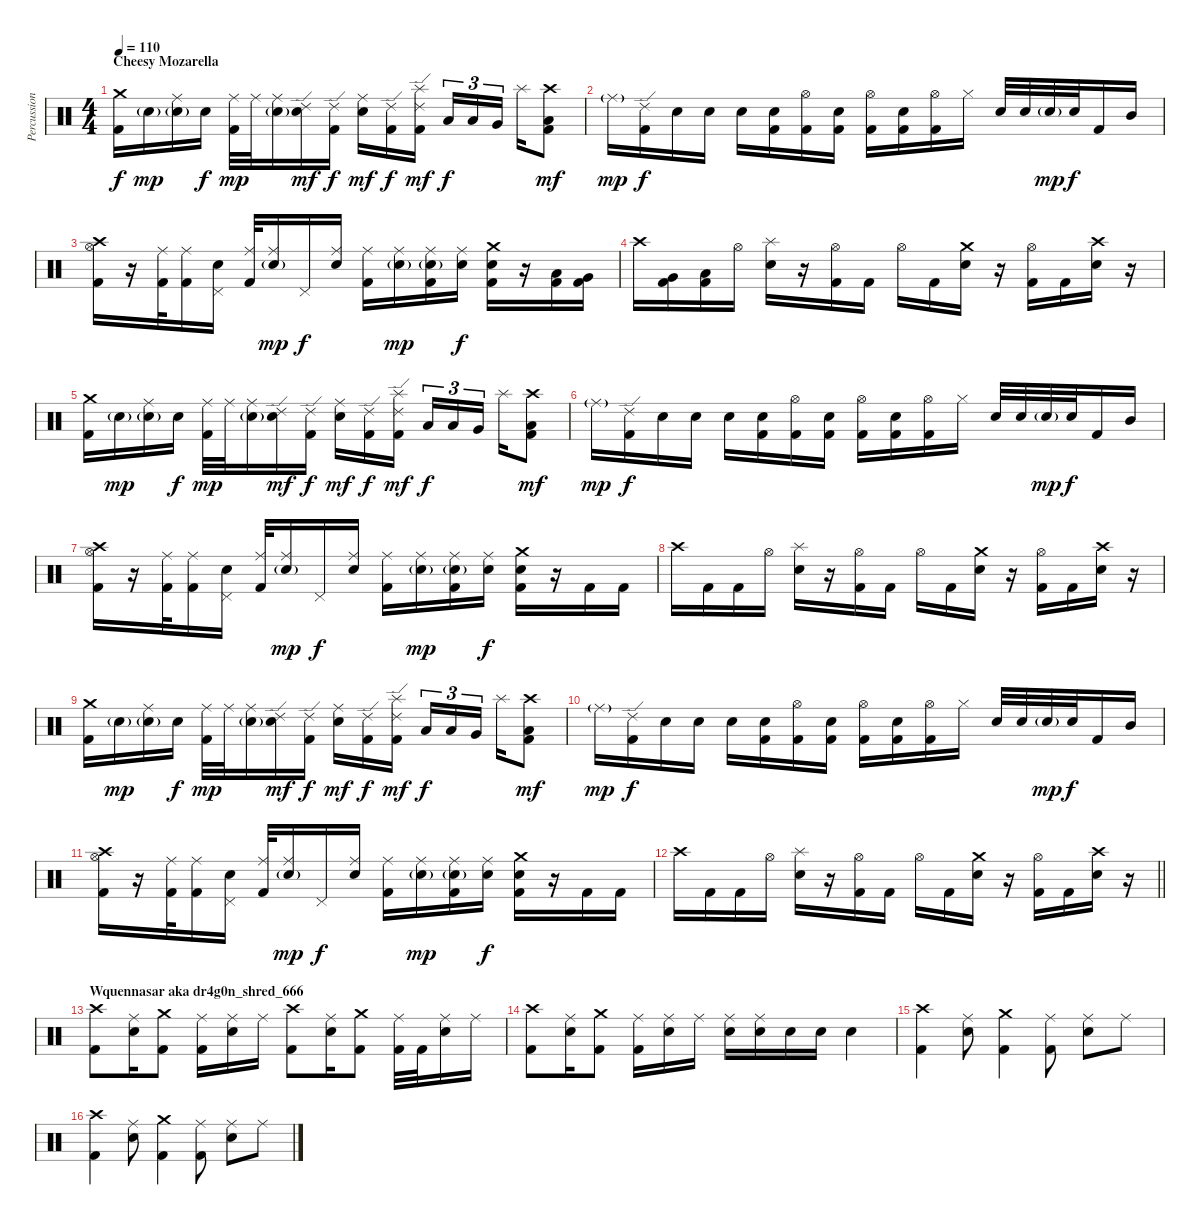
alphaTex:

\track ("Percussion" "Percussion") {instrument percussion}
\staff {score}
\articulation defaults
\ts (4 4)
\section ("" "Cheesy Mozarella")
\tempo 110
\clef neutral
\ks c
("Crash medium (hit)" "Kick (hit) 2").16{dy f} "Electric Snare (hit)"{g}.16{dy mp} ("Ride (middle)" "Electric Snare (hit)"{g}).16 "Electric Snare (hit)".16{dy f} ("Ride (middle)" "Kick (hit) 2").32{dy mp} "Ride (middle)".32 ("Ride (middle)" "Electric Snare (hit)"{g}).16 ("Ride (edge) 2" "Electric Snare (hit)").16{dy mf} ("Ride (edge) 2" "Kick (hit) 2").16{dy f} ("Ride (middle)" "Electric Snare (hit)").16{dy mf} ("Ride (edge) 2" "Kick (hit) 2").16{dy f} ("Ride (edge) 2" "Splash (hit)" "Kick (hit) 2").16{dy mf beam splitsecondary} "Low Tom (hit)".16{tu (3 2) dy f} "Low Tom (hit)".16{tu (3 2)} "Very Low Tom (hit)".16{tu (3 2) beam splitsecondary} "Splash (hit)".16 ("Crash high (hit)" "Low Floor Tom (hit)" "Kick (hit) 2").8{dy mf} |
"Ride (middle)"{g}.16{dy mp} ("Ride (edge) 2" "Kick (hit) 2").16{dy f} "Electric Snare (hit)".16 "Electric Snare (hit)".16 "Electric Snare (hit)".16 ("Electric Snare (hit)" "Kick (hit) 2").16 ("Hi-Hat (open)" "Kick (hit) 2").16 ("Electric Snare (hit)" "Kick (hit) 2").16 ("Hi-Hat (open)" "Kick (hit) 2").16 ("Electric Snare (hit)" "Kick (hit) 2").16 ("Hi-Hat (open)" "Kick (hit) 2").16 "Hi-Hat (closed)".16 "Electric Snare (hit)".32 "Electric Snare (hit)".32 "Electric Snare (hit)"{g}.32{dy mp} "Electric Snare (hit)".32{dy f} "Kick (hit) 2".16 "Mid Tom (hit)".16 |
("Hi-Hat (open)" "Crash high (hit)" "Kick (hit) 2").16 r.16 ("Ride (middle)" "Kick (hit) 2").32 ("Ride (middle)" "Kick (hit) 2").16 ("Pedal Hi-Hat (hit)" "Electric Snare (hit)").16 ("Ride (middle)" "Kick (hit) 2").32 ("Ride (middle)" "Electric Snare (hit)"{g}).16{dy mp} "Pedal Hi-Hat (hit)".16{dy f} ("Ride (middle)" "Electric Snare (hit)").16 ("Ride (middle)" "Kick (hit) 2").16 ("Ride (middle)" "Electric Snare (hit)"{g}).16{dy mp} ("Ride (middle)" "Electric Snare (hit)"{g} "Kick (hit) 2").16 ("Ride (middle)" "Electric Snare (hit)").16{dy f} ("Crash medium (hit)" "Electric Snare (hit)" "Kick (hit) 2").16 r.16 ("Low Floor Tom (hit)" "Kick (hit) 2").16 ("Very Low Tom (hit)" "Kick (hit) 2").16 |
"Crash high (hit)".16 ("Very Low Tom (hit)" "Kick (hit) 2").16 ("Low Tom (hit)" "Kick (hit) 2").16 "Hi-Hat (open)".16 ("Splash (hit)" "Electric Snare (hit)").16 r.16 ("Hi-Hat (open)" "Kick (hit) 2").16 "Kick (hit) 2".16 "Hi-Hat (open)".16 "Kick (hit) 2".16 ("Crash medium (hit)" "Electric Snare (hit)").16 r.16 ("Hi-Hat (open)" "Kick (hit) 2").16 "Kick (hit) 2".16 ("Crash high (hit)" "Electric Snare (hit)").16 r.16 |
("Crash medium (hit)" "Kick (hit) 2").16 "Electric Snare (hit)"{g}.16{dy mp} ("Ride (middle)" "Electric Snare (hit)"{g}).16 "Electric Snare (hit)".16{dy f} ("Ride (middle)" "Kick (hit) 2").32{dy mp} "Ride (middle)".32 ("Ride (middle)" "Electric Snare (hit)"{g}).16 ("Ride (edge) 2" "Electric Snare (hit)").16{dy mf} ("Ride (edge) 2" "Kick (hit) 2").16{dy f} ("Ride (middle)" "Electric Snare (hit)").16{dy mf} ("Ride (edge) 2" "Kick (hit) 2").16{dy f} ("Ride (edge) 2" "Splash (hit)" "Kick (hit) 2").16{dy mf beam splitsecondary} "Low Tom (hit)".16{tu (3 2) dy f} "Low Tom (hit)".16{tu (3 2)} "Very Low Tom (hit)".16{tu (3 2) beam splitsecondary} "Splash (hit)".16 ("Crash high (hit)" "Low Floor Tom (hit)" "Kick (hit) 2").8{dy mf} |
"Ride (middle)"{g}.16{dy mp} ("Ride (edge) 2" "Kick (hit) 2").16{dy f} "Electric Snare (hit)".16 "Electric Snare (hit)".16 "Electric Snare (hit)".16 ("Electric Snare (hit)" "Kick (hit) 2").16 ("Hi-Hat (open)" "Kick (hit) 2").16 ("Electric Snare (hit)" "Kick (hit) 2").16 ("Hi-Hat (open)" "Kick (hit) 2").16 ("Electric Snare (hit)" "Kick (hit) 2").16 ("Hi-Hat (open)" "Kick (hit) 2").16 "Hi-Hat (closed)".16 "Electric Snare (hit)".32 "Electric Snare (hit)".32 "Electric Snare (hit)"{g}.32{dy mp} "Electric Snare (hit)".32{dy f} "Kick (hit) 2".16 "Mid Tom (hit)".16 |
("Hi-Hat (open)" "Crash high (hit)" "Kick (hit) 2").16 r.16 ("Ride (middle)" "Kick (hit) 2").32 ("Ride (middle)" "Kick (hit) 2").16 ("Pedal Hi-Hat (hit)" "Electric Snare (hit)").16 ("Ride (middle)" "Kick (hit) 2").32 ("Ride (middle)" "Electric Snare (hit)"{g}).16{dy mp} "Pedal Hi-Hat (hit)".16{dy f} ("Ride (middle)" "Electric Snare (hit)").16 ("Ride (middle)" "Kick (hit) 2").16 ("Ride (middle)" "Electric Snare (hit)"{g}).16{dy mp} ("Ride (middle)" "Electric Snare (hit)"{g} "Kick (hit) 2").16 ("Ride (middle)" "Electric Snare (hit)").16{dy f} ("Crash medium (hit)" "Electric Snare (hit)" "Kick (hit) 2").16 r.16 "Kick (hit) 2".16 "Kick (hit) 2".16 |
"Crash high (hit)".16 "Kick (hit) 2".16 "Kick (hit) 2".16 "Hi-Hat (open)".16 ("Splash (hit)" "Electric Snare (hit)").16 r.16 ("Hi-Hat (open)" "Kick (hit) 2").16 "Kick (hit) 2".16 "Hi-Hat (open)".16 "Kick (hit) 2".16 ("Crash medium (hit)" "Electric Snare (hit)").16 r.16 ("Hi-Hat (open)" "Kick (hit) 2").16 "Kick (hit) 2".16 ("Crash high (hit)" "Electric Snare (hit)").16 r.16 |
("Crash medium (hit)" "Kick (hit) 2").16 "Electric Snare (hit)"{g}.16{dy mp} ("Ride (middle)" "Electric Snare (hit)"{g}).16 "Electric Snare (hit)".16{dy f} ("Ride (middle)" "Kick (hit) 2").32{dy mp} "Ride (middle)".32 ("Ride (middle)" "Electric Snare (hit)"{g}).16 ("Ride (edge) 2" "Electric Snare (hit)").16{dy mf} ("Ride (edge) 2" "Kick (hit) 2").16{dy f} ("Ride (middle)" "Electric Snare (hit)").16{dy mf} ("Ride (edge) 2" "Kick (hit) 2").16{dy f} ("Ride (edge) 2" "Splash (hit)" "Kick (hit) 2").16{dy mf beam splitsecondary} "Low Tom (hit)".16{tu (3 2) dy f} "Low Tom (hit)".16{tu (3 2)} "Very Low Tom (hit)".16{tu (3 2) beam splitsecondary} "Splash (hit)".16 ("Crash high (hit)" "Low Floor Tom (hit)" "Kick (hit) 2").8{dy mf} |
"Ride (middle)"{g}.16{dy mp} ("Ride (edge) 2" "Kick (hit) 2").16{dy f} "Electric Snare (hit)".16 "Electric Snare (hit)".16 "Electric Snare (hit)".16 ("Electric Snare (hit)" "Kick (hit) 2").16 ("Hi-Hat (open)" "Kick (hit) 2").16 ("Electric Snare (hit)" "Kick (hit) 2").16 ("Hi-Hat (open)" "Kick (hit) 2").16 ("Electric Snare (hit)" "Kick (hit) 2").16 ("Hi-Hat (open)" "Kick (hit) 2").16 "Hi-Hat (closed)".16 "Electric Snare (hit)".32 "Electric Snare (hit)".32 "Electric Snare (hit)"{g}.32{dy mp} "Electric Snare (hit)".32{dy f} "Kick (hit) 2".16 "Mid Tom (hit)".16 |
("Hi-Hat (open)" "Crash high (hit)" "Kick (hit) 2").16 r.16 ("Ride (middle)" "Kick (hit) 2").32 ("Ride (middle)" "Kick (hit) 2").16 ("Pedal Hi-Hat (hit)" "Electric Snare (hit)").16 ("Ride (middle)" "Kick (hit) 2").32 ("Ride (middle)" "Electric Snare (hit)"{g}).16{dy mp} "Pedal Hi-Hat (hit)".16{dy f} ("Ride (middle)" "Electric Snare (hit)").16 ("Ride (middle)" "Kick (hit) 2").16 ("Ride (middle)" "Electric Snare (hit)"{g}).16{dy mp} ("Ride (middle)" "Electric Snare (hit)"{g} "Kick (hit) 2").16 ("Ride (middle)" "Electric Snare (hit)").16{dy f} ("Crash medium (hit)" "Electric Snare (hit)" "Kick (hit) 2").16 r.16 "Kick (hit) 2".16 "Kick (hit) 2".16 |
\barLineRight lightlight "Crash high (hit)".16 "Kick (hit) 2".16 "Kick (hit) 2".16 "Hi-Hat (open)".16
("Splash (hit)" "Electric Snare (hit)").16 r.16 ("Hi-Hat (open)" "Kick (hit) 2").16 "Kick (hit) 2".16 "Hi-Hat (open)".16 "Kick (hit) 2".16 ("Crash medium (hit)" "Electric Snare (hit)").16 r.16 ("Hi-Hat (open)" "Kick (hit) 2").16 "Kick (hit) 2".16 ("Crash high (hit)" "Electric Snare (hit)").16 r.16 |
\section ("" "Wquennasar aka dr4g0n_shred_666")
("Crash high (hit)" "Kick (hit) 2").8 ("Ride (middle)" "Electric Snare (hit)").16 ("Crash medium (hit)" "Kick (hit) 2").8 ("Ride (middle)" "Kick (hit) 2").16 ("Ride (middle)" "Electric Snare (hit)").16 "Ride (middle)".16 ("Crash high (hit)" "Kick (hit) 2").8 ("Ride (middle)" "Electric Snare (hit)").16 ("Crash medium (hit)" "Kick (hit) 2").8 ("Ride (middle)" "Kick (hit) 2").32 "Kick (hit) 2".32 ("Ride (middle)" "Electric Snare (hit)").16 "Ride (middle)".16 |
("Crash high (hit)" "Kick (hit) 2").8 ("Ride (middle)" "Electric Snare (hit)").16 ("Crash medium (hit)" "Kick (hit) 2").8 ("Ride (middle)" "Kick (hit) 2").16 ("Ride (middle)" "Electric Snare (hit)").16 "Ride (middle)".16 ("Ride (middle)" "Electric Snare (hit)").16 ("Ride (middle)" "Electric Snare (hit)").16 "Electric Snare (hit)".16 "Electric Snare (hit)".16 "Electric Snare (hit)".4 |
("Crash high (hit)" "Kick (hit) 2").4 ("Ride (middle)" "Electric Snare (hit)").8 ("Crash medium (hit)" "Kick (hit) 2").4 ("Ride (middle)" "Kick (hit) 2").8 ("Ride (middle)" "Electric Snare (hit)").8 "Ride (middle)".8 |
("Crash high (hit)" "Kick (hit) 2").4 ("Ride (middle)" "Electric Snare (hit)").8 ("Crash medium (hit)" "Kick (hit) 2").4 ("Ride (middle)" "Kick (hit) 2").8 ("Ride (middle)" "Electric Snare (hit)").8 "Ride (middle)".8
